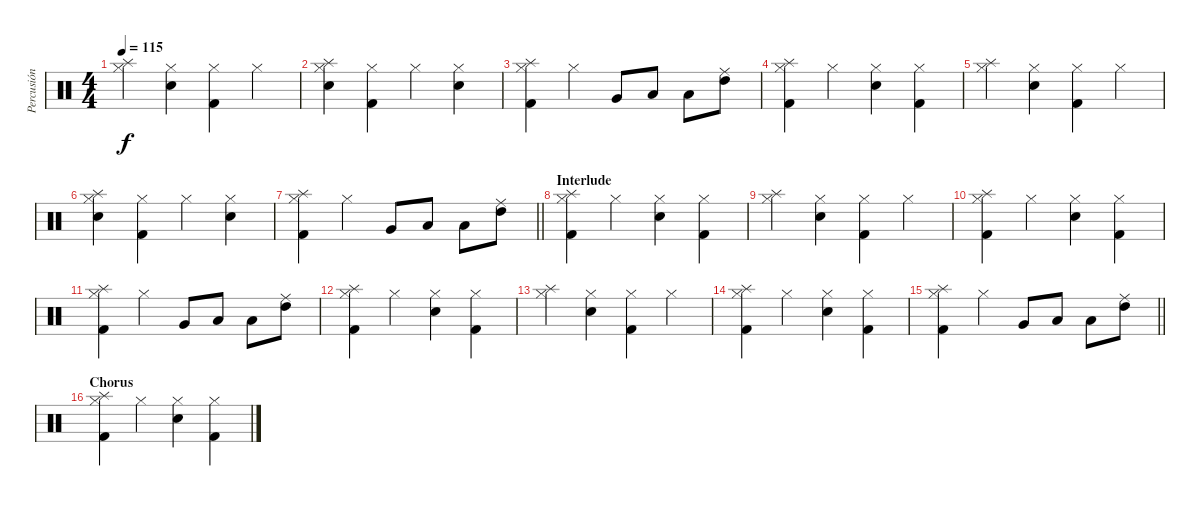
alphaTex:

\track ("Percusión" "Percusión") {instrument percussion}
\staff {score}
\articulation defaults
\ts (4 4)
\tempo 115
\clef neutral
\ks c
("Splash (hit)" "Hi-Hat (closed)").4{dy f} ("Snare (hit) 2" "Hi-Hat (closed)").4 ("Hi-Hat (closed)" "Kick (hit) 2").4 "Hi-Hat (closed)".4 |
("Splash (hit)" "Snare (hit) 2" "Hi-Hat (closed)").4 ("Hi-Hat (closed)" "Kick (hit) 2").4 "Hi-Hat (closed)".4 ("Snare (hit) 2" "Hi-Hat (closed)").4 |
("Splash (hit)" "Hi-Hat (closed)" "Kick (hit) 2").4 "Hi-Hat (closed)".4 "Very Low Tom (hit)".8 "Low Floor Tom (hit)".8 "Low Tom (hit)".8 ("High Tom (hit)" "Ride (middle)").8 |
("Splash (hit)" "Hi-Hat (closed)" "Kick (hit) 2").4 "Hi-Hat (closed)".4 ("Snare (hit) 2" "Hi-Hat (closed)").4 ("Hi-Hat (closed)" "Kick (hit) 2").4 |
("Splash (hit)" "Hi-Hat (closed)").4 ("Snare (hit) 2" "Hi-Hat (closed)").4 ("Hi-Hat (closed)" "Kick (hit) 2").4 "Hi-Hat (closed)".4 |
("Splash (hit)" "Snare (hit) 2" "Hi-Hat (closed)").4 ("Hi-Hat (closed)" "Kick (hit) 2").4 "Hi-Hat (closed)".4 ("Snare (hit) 2" "Hi-Hat (closed)").4 |
\barLineRight lightlight
("Splash (hit)" "Hi-Hat (closed)" "Kick (hit) 2").4 "Hi-Hat (closed)".4 "Very Low Tom (hit)".8 "Low Floor Tom (hit)".8 "Low Tom (hit)".8 ("High Tom (hit)" "Ride (middle)").8 |
\section ("" "Interlude")
("Splash (hit)" "Hi-Hat (closed)" "Kick (hit) 2").4 "Hi-Hat (closed)".4 ("Snare (hit) 2" "Hi-Hat (closed)").4 ("Hi-Hat (closed)" "Kick (hit) 2").4 |
("Splash (hit)" "Hi-Hat (closed)").4 ("Snare (hit) 2" "Hi-Hat (closed)").4 ("Hi-Hat (closed)" "Kick (hit) 2").4 "Hi-Hat (closed)".4 |
("Splash (hit)" "Hi-Hat (closed)" "Kick (hit) 2").4 "Hi-Hat (closed)".4 ("Snare (hit) 2" "Hi-Hat (closed)").4 ("Hi-Hat (closed)" "Kick (hit) 2").4 |
("Splash (hit)" "Hi-Hat (closed)" "Kick (hit) 2").4 "Hi-Hat (closed)".4 "Very Low Tom (hit)".8 "Low Floor Tom (hit)".8 "Low Tom (hit)".8 ("High Tom (hit)" "Ride (middle)").8 |
("Splash (hit)" "Hi-Hat (closed)" "Kick (hit) 2").4 "Hi-Hat (closed)".4 ("Snare (hit) 2" "Hi-Hat (closed)").4 ("Hi-Hat (closed)" "Kick (hit) 2").4 |
("Splash (hit)" "Hi-Hat (closed)").4 ("Snare (hit) 2" "Hi-Hat (closed)").4 ("Hi-Hat (closed)" "Kick (hit) 2").4 "Hi-Hat (closed)".4 |
("Splash (hit)" "Hi-Hat (closed)" "Kick (hit) 2").4 "Hi-Hat (closed)".4 ("Snare (hit) 2" "Hi-Hat (closed)").4 ("Hi-Hat (closed)" "Kick (hit) 2").4 |
\barLineRight lightlight
("Splash (hit)" "Hi-Hat (closed)" "Kick (hit) 2").4 "Hi-Hat (closed)".4 "Very Low Tom (hit)".8 "Low Floor Tom (hit)".8 "Low Tom (hit)".8 ("High Tom (hit)" "Ride (middle)").8 |
\section ("" "Chorus")
("Splash (hit)" "Hi-Hat (closed)" "Kick (hit) 2").4 "Hi-Hat (closed)".4 ("Snare (hit) 2" "Hi-Hat (closed)").4 ("Hi-Hat (closed)" "Kick (hit) 2").4
